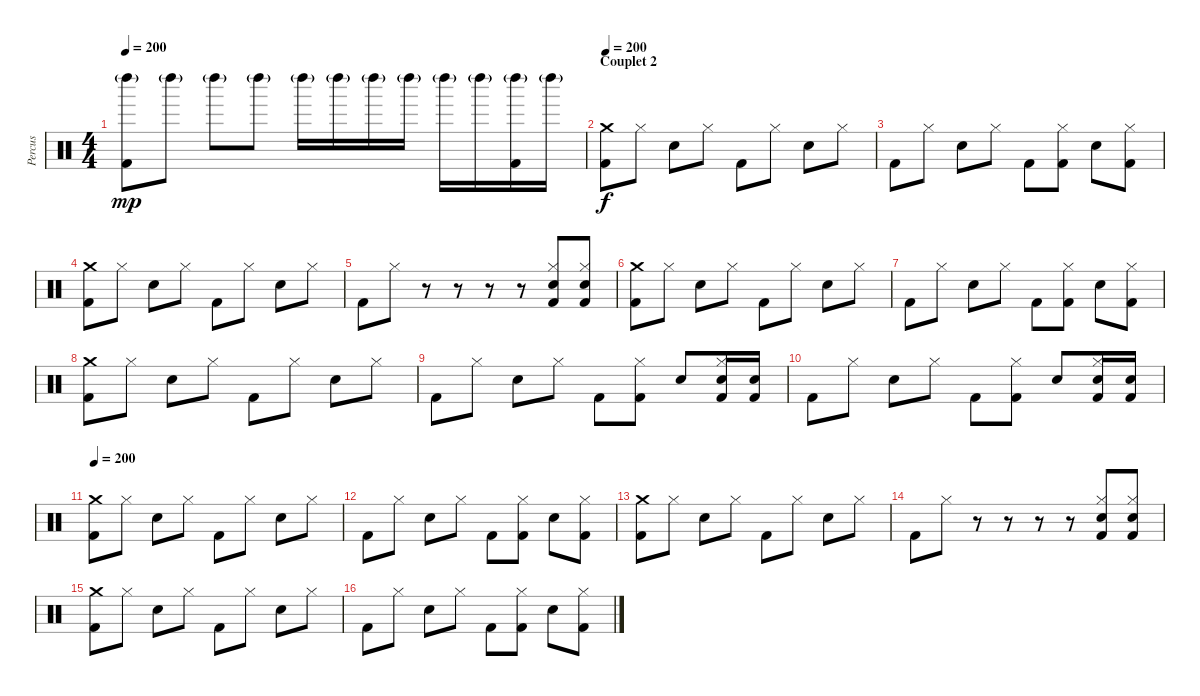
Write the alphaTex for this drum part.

\track ("Percus" "Percus") {instrument percussion}
\staff {score}
\articulation defaults
\ts (4 4)
\tempo 200
\clef neutral
\ks c
("Left Maraca (hit)"{g} "Kick (hit) 2").8{dy mp} "Left Maraca (hit)"{g}.8 "Left Maraca (hit)"{g}.8 "Left Maraca (hit)"{g}.8 "Left Maraca (hit)"{g}.16 "Left Maraca (hit)"{g}.16 "Left Maraca (hit)"{g}.16 "Left Maraca (hit)"{g}.16 "Left Maraca (hit)"{g}.16 "Left Maraca (hit)"{g}.16 ("Left Maraca (hit)"{g} "Kick (hit) 2").16 "Left Maraca (hit)"{g}.16 |
\section ("" "Couplet 2")
\tempo 200
("Crash medium (hit)" "Kick (hit) 2").8{dy f} "Hi-Hat (closed)".8 "Snare (hit) 2".8 "Hi-Hat (closed)".8 "Kick (hit) 2".8 "Hi-Hat (closed)".8 "Snare (hit) 2".8 "Hi-Hat (closed)".8 |
"Kick (hit) 2".8 "Hi-Hat (closed)".8 "Snare (hit) 2".8 "Hi-Hat (closed)".8 "Kick (hit) 2".8 ("Hi-Hat (closed)" "Kick (hit) 2").8 "Snare (hit) 2".8 ("Hi-Hat (closed)" "Kick (hit) 2").8 |
("Crash medium (hit)" "Kick (hit) 2").8 "Hi-Hat (closed)".8 "Snare (hit) 2".8 "Hi-Hat (closed)".8 "Kick (hit) 2".8 "Hi-Hat (closed)".8 "Snare (hit) 2".8 "Hi-Hat (closed)".8 |
"Kick (hit) 2".8 "Hi-Hat (closed)".8 r.8 r.8 r.8 r.8 ("Hi-Hat (closed)" "Snare (hit) 2" "Kick (hit) 2").8 ("Hi-Hat (closed)" "Snare (hit) 2" "Kick (hit) 2").8 |
("Crash medium (hit)" "Kick (hit) 2").8 "Hi-Hat (closed)".8 "Snare (hit) 2".8 "Hi-Hat (closed)".8 "Kick (hit) 2".8 "Hi-Hat (closed)".8 "Snare (hit) 2".8 "Hi-Hat (closed)".8 |
"Kick (hit) 2".8 "Hi-Hat (closed)".8 "Snare (hit) 2".8 "Hi-Hat (closed)".8 "Kick (hit) 2".8 ("Hi-Hat (closed)" "Kick (hit) 2").8 "Snare (hit) 2".8 ("Hi-Hat (closed)" "Kick (hit) 2").8 |
("Crash medium (hit)" "Kick (hit) 2").8 "Hi-Hat (closed)".8 "Snare (hit) 2".8 "Hi-Hat (closed)".8 "Kick (hit) 2".8 "Hi-Hat (closed)".8 "Snare (hit) 2".8 "Hi-Hat (closed)".8 |
"Kick (hit) 2".8 "Hi-Hat (closed)".8 "Snare (hit) 2".8 "Hi-Hat (closed)".8 "Kick (hit) 2".8 ("Hi-Hat (closed)" "Kick (hit) 2").8 "Snare (hit) 2".8 ("Hi-Hat (closed)" "Snare (hit) 2" "Kick (hit) 2").16 ("Snare (hit) 2" "Kick (hit) 2").16 |
"Kick (hit) 2".8 "Hi-Hat (closed)".8 "Snare (hit) 2".8 "Hi-Hat (closed)".8 "Kick (hit) 2".8 ("Hi-Hat (closed)" "Kick (hit) 2").8 "Snare (hit) 2".8 ("Hi-Hat (closed)" "Snare (hit) 2" "Kick (hit) 2").16 ("Snare (hit) 2" "Kick (hit) 2").16 |
\tempo 200
("Crash medium (hit)" "Kick (hit) 2").8 "Hi-Hat (closed)".8 "Snare (hit) 2".8 "Hi-Hat (closed)".8 "Kick (hit) 2".8 "Hi-Hat (closed)".8 "Snare (hit) 2".8 "Hi-Hat (closed)".8 |
"Kick (hit) 2".8 "Hi-Hat (closed)".8 "Snare (hit) 2".8 "Hi-Hat (closed)".8 "Kick (hit) 2".8 ("Hi-Hat (closed)" "Kick (hit) 2").8 "Snare (hit) 2".8 ("Hi-Hat (closed)" "Kick (hit) 2").8 |
("Crash medium (hit)" "Kick (hit) 2").8 "Hi-Hat (closed)".8 "Snare (hit) 2".8 "Hi-Hat (closed)".8 "Kick (hit) 2".8 "Hi-Hat (closed)".8 "Snare (hit) 2".8 "Hi-Hat (closed)".8 |
"Kick (hit) 2".8 "Hi-Hat (closed)".8 r.8 r.8 r.8 r.8 ("Hi-Hat (closed)" "Snare (hit) 2" "Kick (hit) 2").8 ("Hi-Hat (closed)" "Snare (hit) 2" "Kick (hit) 2").8 |
("Crash medium (hit)" "Kick (hit) 2").8 "Hi-Hat (closed)".8 "Snare (hit) 2".8 "Hi-Hat (closed)".8 "Kick (hit) 2".8 "Hi-Hat (closed)".8 "Snare (hit) 2".8 "Hi-Hat (closed)".8 |
"Kick (hit) 2".8 "Hi-Hat (closed)".8 "Snare (hit) 2".8 "Hi-Hat (closed)".8 "Kick (hit) 2".8 ("Hi-Hat (closed)" "Kick (hit) 2").8 "Snare (hit) 2".8 ("Hi-Hat (closed)" "Kick (hit) 2").8
